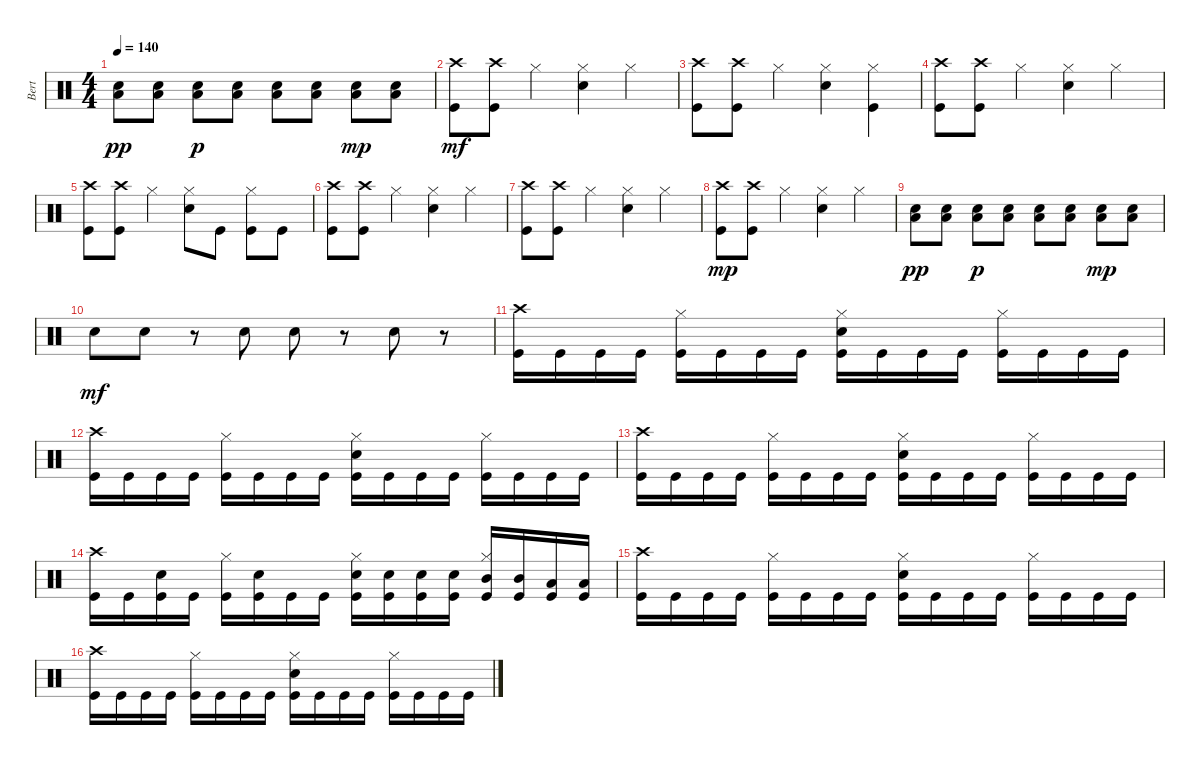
\track ("Bert" "Bert") {instrument percussion}
\staff {score}
\articulation defaults
\ts (4 4)
\tempo 140
\clef neutral
\ks c
("Low Floor Tom (hit)" "Electric Snare (hit)").8{dy pp} ("Electric Snare (hit)" "Low Floor Tom (hit)").8 ("Electric Snare (hit)" "Low Floor Tom (hit)").8{dy p} ("Low Floor Tom (hit)" "Electric Snare (hit)").8 ("Low Floor Tom (hit)" "Electric Snare (hit)").8 ("Electric Snare (hit)" "Low Floor Tom (hit)").8 ("Low Floor Tom (hit)" "Electric Snare (hit)").8{dy mp} ("Electric Snare (hit)" "Low Floor Tom (hit)").8 |
("Kick (hit)" "Crash high (hit)").8{dy mf} ("Crash high (hit)" "Kick (hit)").8 "Hi-Hat (closed)".4 ("Hi-Hat (closed)" "Electric Snare (hit)").4 "Hi-Hat (closed)".4 |
("Crash high (hit)" "Kick (hit)").8 ("Kick (hit)" "Crash high (hit)").8 "Hi-Hat (closed)".4 ("Electric Snare (hit)" "Hi-Hat (closed)").4 ("Kick (hit)" "Hi-Hat (closed)").4 |
("Kick (hit)" "Crash high (hit)").8 ("Crash high (hit)" "Kick (hit)").8 "Hi-Hat (closed)".4 ("Hi-Hat (closed)" "Electric Snare (hit)").4 "Hi-Hat (closed)".4 |
("Kick (hit)" "Crash high (hit)").8 ("Kick (hit)" "Crash high (hit)").8 "Hi-Hat (closed)".4 ("Electric Snare (hit)" "Hi-Hat (closed)").8 "Kick (hit)".8 ("Hi-Hat (closed)" "Kick (hit)").8 "Kick (hit)".8 |
("Crash high (hit)" "Kick (hit)").8 ("Kick (hit)" "Crash high (hit)").8 "Hi-Hat (closed)".4 ("Electric Snare (hit)" "Hi-Hat (closed)").4 "Hi-Hat (closed)".4 |
("Kick (hit)" "Crash high (hit)").8 ("Crash high (hit)" "Kick (hit)").8 "Hi-Hat (closed)".4 ("Electric Snare (hit)" "Hi-Hat (closed)").4 "Hi-Hat (closed)".4 |
("Kick (hit)" "Crash high (hit)").8{dy mp} ("Kick (hit)" "Crash high (hit)").8 "Hi-Hat (closed)".4 ("Electric Snare (hit)" "Hi-Hat (closed)").4 "Hi-Hat (closed)".4 |
("Low Floor Tom (hit)" "Electric Snare (hit)").8{dy pp} ("Electric Snare (hit)" "Low Floor Tom (hit)").8 ("Electric Snare (hit)" "Low Floor Tom (hit)").8{dy p} ("Low Floor Tom (hit)" "Electric Snare (hit)").8 ("Low Floor Tom (hit)" "Electric Snare (hit)").8 ("Electric Snare (hit)" "Low Floor Tom (hit)").8 ("Low Floor Tom (hit)" "Electric Snare (hit)").8{dy mp} ("Electric Snare (hit)" "Low Floor Tom (hit)").8 |
"Electric Snare (hit)".8{dy mf} "Electric Snare (hit)".8 r.8 "Electric Snare (hit)".8 "Electric Snare (hit)".8 r.8 "Electric Snare (hit)".8 r.8 |
("Crash high (hit)" "Kick (hit)").16 "Kick (hit)".16 "Kick (hit)".16 "Kick (hit)".16 ("Hi-Hat (closed)" "Kick (hit)").16 "Kick (hit)".16 "Kick (hit)".16 "Kick (hit)".16 ("Electric Snare (hit)" "Hi-Hat (closed)" "Kick (hit)").16 "Kick (hit)".16 "Kick (hit)".16 "Kick (hit)".16 ("Hi-Hat (closed)" "Kick (hit)").16 "Kick (hit)".16 "Kick (hit)".16 "Kick (hit)".16 |
("Kick (hit)" "Crash high (hit)").16 "Kick (hit)".16 "Kick (hit)".16 "Kick (hit)".16 ("Hi-Hat (closed)" "Kick (hit)").16 "Kick (hit)".16 "Kick (hit)".16 "Kick (hit)".16 ("Electric Snare (hit)" "Kick (hit)" "Hi-Hat (closed)").16 "Kick (hit)".16 "Kick (hit)".16 "Kick (hit)".16 ("Kick (hit)" "Hi-Hat (closed)").16 "Kick (hit)".16 "Kick (hit)".16 "Kick (hit)".16 |
("Crash high (hit)" "Kick (hit)").16 "Kick (hit)".16 "Kick (hit)".16 "Kick (hit)".16 ("Kick (hit)" "Hi-Hat (closed)").16 "Kick (hit)".16 "Kick (hit)".16 "Kick (hit)".16 ("Electric Snare (hit)" "Kick (hit)" "Hi-Hat (closed)").16 "Kick (hit)".16 "Kick (hit)".16 "Kick (hit)".16 ("Kick (hit)" "Hi-Hat (closed)").16 "Kick (hit)".16 "Kick (hit)".16 "Kick (hit)".16 |
("Kick (hit)" "Crash high (hit)").16 "Kick (hit)".16 ("Kick (hit)" "Electric Snare (hit)").16 "Kick (hit)".16 ("Hi-Hat (closed)" "Kick (hit)").16 ("Electric Snare (hit)" "Kick (hit)").16 "Kick (hit)".16 "Kick (hit)".16 ("Kick (hit)" "Hi-Hat (closed)" "Electric Snare (hit)").16 ("Electric Snare (hit)" "Kick (hit)").16 ("Kick (hit)" "Electric Snare (hit)").16 ("Kick (hit)" "Electric Snare (hit)").16 ("Kick (hit)" "Hi-Hat (closed)" "Mid Tom (hit)").16 ("Mid Tom (hit)" "Kick (hit)").16 ("Kick (hit)" "Low Tom (hit)").16 ("Low Tom (hit)" "Kick (hit)").16 |
("Kick (hit)" "Crash high (hit)").16 "Kick (hit)".16 "Kick (hit)".16 "Kick (hit)".16 ("Kick (hit)" "Hi-Hat (closed)").16 "Kick (hit)".16 "Kick (hit)".16 "Kick (hit)".16 ("Electric Snare (hit)" "Hi-Hat (closed)" "Kick (hit)").16 "Kick (hit)".16 "Kick (hit)".16 "Kick (hit)".16 ("Kick (hit)" "Hi-Hat (closed)").16 "Kick (hit)".16 "Kick (hit)".16 "Kick (hit)".16 |
("Crash high (hit)" "Kick (hit)").16 "Kick (hit)".16 "Kick (hit)".16 "Kick (hit)".16 ("Kick (hit)" "Hi-Hat (closed)").16 "Kick (hit)".16 "Kick (hit)".16 "Kick (hit)".16 ("Electric Snare (hit)" "Hi-Hat (closed)" "Kick (hit)").16 "Kick (hit)".16 "Kick (hit)".16 "Kick (hit)".16 ("Kick (hit)" "Hi-Hat (closed)").16 "Kick (hit)".16 "Kick (hit)".16 "Kick (hit)".16
